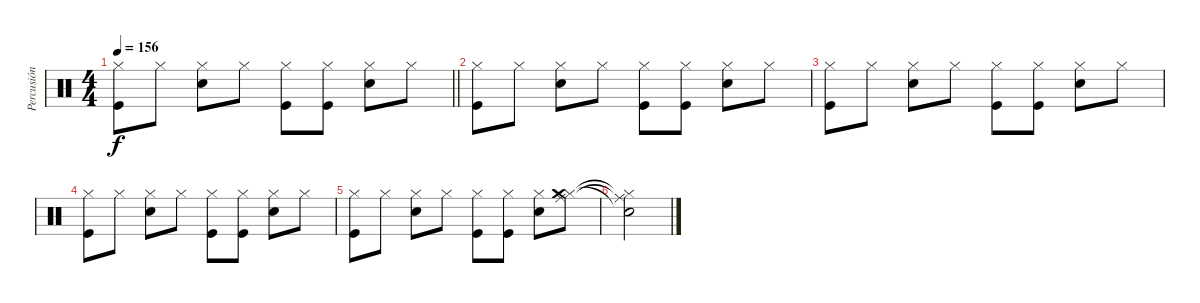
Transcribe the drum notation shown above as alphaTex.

\track ("Percusión" "Percusión") {instrument percussion}
\staff {score}
\articulation defaults
\ts (4 4)
\tempo 156
\clef neutral
\barLineRight lightlight
\ks c
("Hi-Hat (closed)" "Kick (hit)").8{dy f} "Hi-Hat (closed)".8 ("Hi-Hat (closed)" "Electric Snare (hit)").8 "Hi-Hat (closed)".8 ("Hi-Hat (closed)" "Kick (hit)").8 ("Hi-Hat (closed)" "Kick (hit)").8 ("Hi-Hat (closed)" "Electric Snare (hit)").8 "Hi-Hat (closed)".8 |
("Hi-Hat (closed)" "Kick (hit)").8 "Hi-Hat (closed)".8 ("Hi-Hat (closed)" "Electric Snare (hit)").8 "Hi-Hat (closed)".8 ("Hi-Hat (closed)" "Kick (hit)").8 ("Hi-Hat (closed)" "Kick (hit)").8 ("Hi-Hat (closed)" "Electric Snare (hit)").8 "Hi-Hat (closed)".8 |
("Hi-Hat (closed)" "Kick (hit)").8 "Hi-Hat (closed)".8 ("Hi-Hat (closed)" "Electric Snare (hit)").8 "Hi-Hat (closed)".8 ("Hi-Hat (closed)" "Kick (hit)").8 ("Hi-Hat (closed)" "Kick (hit)").8 ("Hi-Hat (closed)" "Electric Snare (hit)").8 "Hi-Hat (closed)".8 |
("Hi-Hat (closed)" "Kick (hit)").8 "Hi-Hat (closed)".8 ("Hi-Hat (closed)" "Electric Snare (hit)").8 "Hi-Hat (closed)".8 ("Hi-Hat (closed)" "Kick (hit)").8 ("Hi-Hat (closed)" "Kick (hit)").8 ("Hi-Hat (closed)" "Electric Snare (hit)").8 "Hi-Hat (closed)".8 |
("Hi-Hat (closed)" "Kick (hit)").8 "Hi-Hat (closed)".8 ("Hi-Hat (closed)" "Electric Snare (hit)").8 "Hi-Hat (closed)".8 ("Hi-Hat (closed)" "Kick (hit)").8 ("Hi-Hat (closed)" "Kick (hit)").8 ("Hi-Hat (closed)" "Electric Snare (hit)").8 ("Hi-Hat (closed)" "Crash medium (hit)" "Ride (middle)").8 |
("Hi-Hat (closed)"{t} "Snare (hit)"{t} "Ride (middle)"{t}).2
